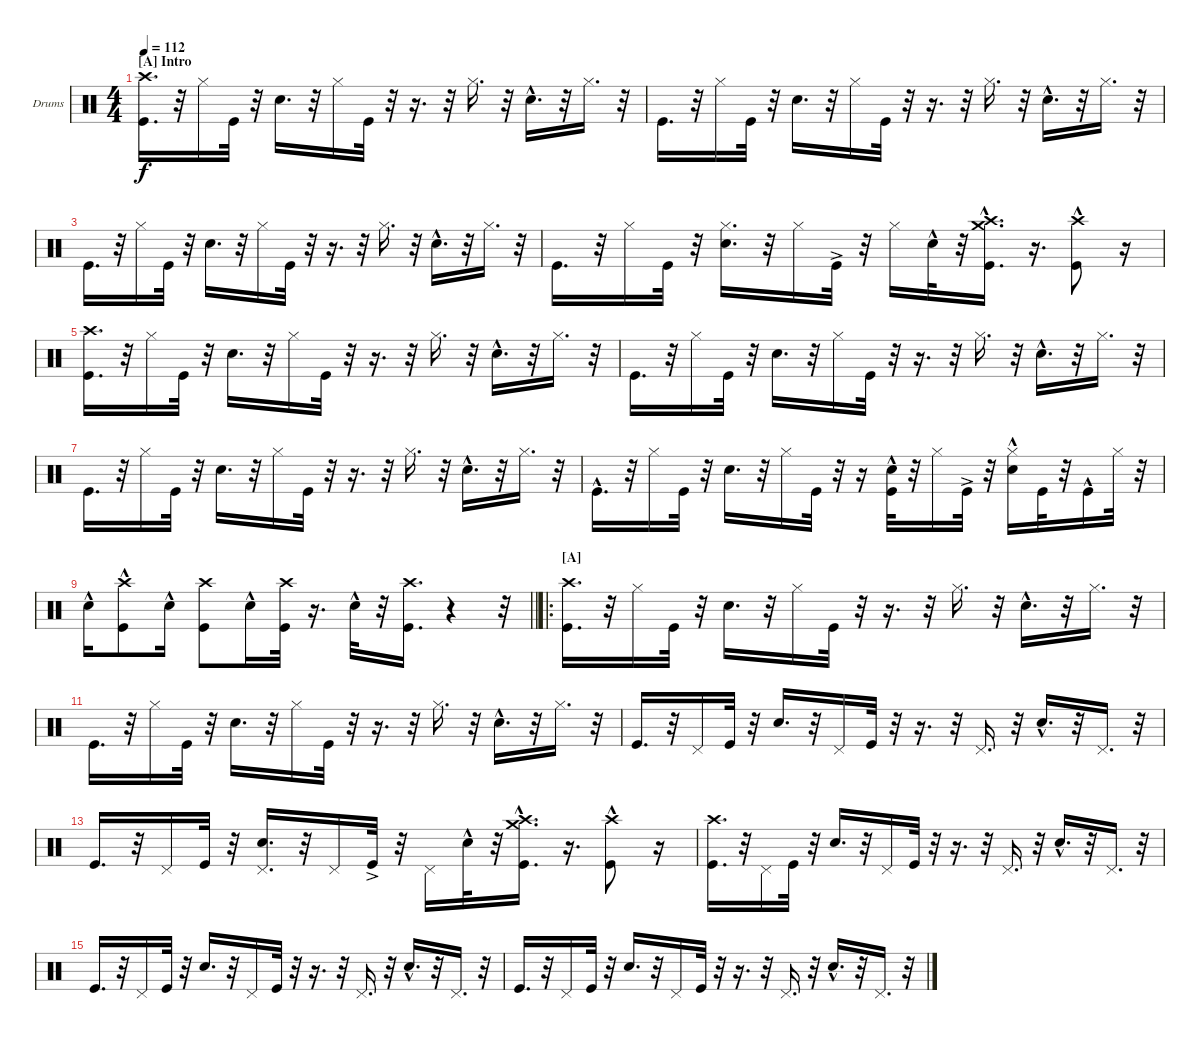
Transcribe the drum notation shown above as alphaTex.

\bracketExtendMode nobrackets
\firstSystemTrackNameOrientation horizontal
\otherSystemsTrackNameOrientation horizontal
\defaultBarNumberDisplay FirstOfSystem
\track ("Drumkit" "Drums") {instrument percussion}
\staff {score}
\articulation defaults
\ts (4 4)
\beaming (8 2 2 2 2)
\section ("A" "Intro")
\tempo 112
\clef neutral
\ks c
("Crash high (hit)" "Kick (hit)").16{d dy f} r.32 "Hi-Hat (closed)".16 "Kick (hit)".32 r.32 "Snare (hit) 2".16{d} r.32 "Hi-Hat (closed)".16 "Kick (hit)".32 r.32 r.16{d} r.32 "Hi-Hat (closed)".16{d} r.32 "Snare (hit) 2"{hac}.16{d} r.32 "Hi-Hat (closed)".16{d} r.32 |
"Kick (hit)".16{d} r.32 "Hi-Hat (closed)".16 "Kick (hit)".32 r.32 "Snare (hit) 2".16{d} r.32 "Hi-Hat (closed)".16 "Kick (hit)".32 r.32 r.16{d} r.32 "Hi-Hat (closed)".16{d} r.32 "Snare (hit) 2"{hac}.16{d} r.32 "Hi-Hat (closed)".16{d} r.32 |
"Kick (hit)".16{d} r.32 "Hi-Hat (closed)".16 "Kick (hit)".32 r.32 "Snare (hit) 2".16{d} r.32 "Hi-Hat (closed)".16 "Kick (hit)".32 r.32 r.16{d} r.32 "Hi-Hat (closed)".16{d} r.32 "Snare (hit) 2"{hac}.16{d} r.32 "Hi-Hat (closed)".16{d} r.32 |
"Kick (hit)".16{d} r.32 "Hi-Hat (closed)".16 "Kick (hit)".32 r.32 ("Snare (hit) 2" "Hi-Hat (closed)").16{d} r.32 "Hi-Hat (closed)".16 "Kick (hit)"{ac}.32 r.32 "Hi-Hat (closed)".16 "Snare (hit) 2"{hac}.32 r.32 ("Crash high (hit)" "Kick (hit)" "Crash medium (hit)"{hac}).16{d} r.16{d} ("Kick (hit)" "Crash high (hit)"{hac}).8 r.16 |
("Crash high (hit)" "Kick (hit)").16{d} r.32 "Hi-Hat (closed)".16 "Kick (hit)".32 r.32 "Snare (hit) 2".16{d} r.32 "Hi-Hat (closed)".16 "Kick (hit)".32 r.32 r.16{d} r.32 "Hi-Hat (closed)".16{d} r.32 "Snare (hit) 2"{hac}.16{d} r.32 "Hi-Hat (closed)".16{d} r.32 |
"Kick (hit)".16{d} r.32 "Hi-Hat (closed)".16 "Kick (hit)".32 r.32 "Snare (hit) 2".16{d} r.32 "Hi-Hat (closed)".16 "Kick (hit)".32 r.32 r.16{d} r.32 "Hi-Hat (closed)".16{d} r.32 "Snare (hit) 2"{hac}.16{d} r.32 "Hi-Hat (closed)".16{d} r.32 |
"Kick (hit)".16{d} r.32 "Hi-Hat (closed)".16 "Kick (hit)".32 r.32 "Snare (hit) 2".16{d} r.32 "Hi-Hat (closed)".16 "Kick (hit)".32 r.32 r.16{d} r.32 "Hi-Hat (closed)".16{d} r.32 "Snare (hit) 2"{hac}.16{d} r.32 "Hi-Hat (closed)".16{d} r.32 |
"Kick (hit)"{hac}.16{d} r.32 "Hi-Hat (closed)".16 "Kick (hit)".32 r.32 "Snare (hit) 2".16{d} r.32 "Hi-Hat (closed)".16 "Kick (hit)".32 r.32 r.16 ("Snare (hit) 2" "Kick (hit)"{hac}).32 r.32 "Hi-Hat (closed)".16 "Kick (hit)"{ac}.32 r.32 ("Snare (hit) 2"{hac} "Hi-Hat (closed)").16 "Kick (hit)".32 r.32 "Kick (hit)"{hac}.16 "Hi-Hat (closed)".32 r.32 |
\barLineRight lightlight "Snare (hit) 2"{hac}.16
("Crash high (hit)" "Kick (hit)"{hac}).8 "Snare (hit) 2"{hac}.16 ("Crash high (hit)" "Kick (hit)").8 "Snare (hit) 2"{hac}.16 ("Crash high (hit)" "Kick (hit)").32 r.16{d} "Snare (hit) 2"{hac}.32 r.32 ("Crash high (hit)" "Kick (hit)").16{d} r.4 r.32 |
\ro
\section ("A" "")
("Crash high (hit)" "Kick (hit)").16{d} r.32 "Hi-Hat (closed)".16 "Kick (hit)".32 r.32 "Snare (hit) 2".16{d} r.32 "Hi-Hat (closed)".16 "Kick (hit)".32 r.32 r.16{d} r.32 "Hi-Hat (closed)".16{d} r.32 "Snare (hit) 2"{hac}.16{d} r.32 "Hi-Hat (closed)".16{d} r.32 |
"Kick (hit)".16{d} r.32 "Hi-Hat (closed)".16 "Kick (hit)".32 r.32 "Snare (hit) 2".16{d} r.32 "Hi-Hat (closed)".16 "Kick (hit)".32 r.32 r.16{d} r.32 "Hi-Hat (closed)".16{d} r.32 "Snare (hit) 2"{hac}.16{d} r.32 "Hi-Hat (closed)".16{d} r.32 |
"Kick (hit)".16{d} r.32 "Pedal Hi-Hat (hit)".16 "Kick (hit)".32 r.32 "Snare (hit) 2".16{d} r.32 "Pedal Hi-Hat (hit)".16 "Kick (hit)".32 r.32 r.16{d} r.32 "Pedal Hi-Hat (hit)".16{d} r.32 "Snare (hit) 2"{hac}.16{d} r.32 "Pedal Hi-Hat (hit)".16{d} r.32 |
"Kick (hit)".16{d} r.32 "Pedal Hi-Hat (hit)".16 "Kick (hit)".32 r.32 ("Pedal Hi-Hat (hit)" "Snare (hit) 2").16{d} r.32 "Pedal Hi-Hat (hit)".16 "Kick (hit)"{ac}.32 r.32 "Pedal Hi-Hat (hit)".16 "Snare (hit) 2"{hac}.32 r.32 ("Crash high (hit)" "Kick (hit)" "Crash medium (hit)"{hac}).16{d} r.16{d} ("Kick (hit)" "Crash high (hit)"{hac}).8 r.16 |
("Crash high (hit)" "Kick (hit)").16{d} r.32 "Pedal Hi-Hat (hit)".16 "Kick (hit)".32 r.32 "Snare (hit) 2".16{d} r.32 "Pedal Hi-Hat (hit)".16 "Kick (hit)".32 r.32 r.16{d} r.32 "Pedal Hi-Hat (hit)".16{d} r.32 "Snare (hit) 2"{hac}.16{d} r.32 "Pedal Hi-Hat (hit)".16{d} r.32 |
"Kick (hit)".16{d} r.32 "Pedal Hi-Hat (hit)".16 "Kick (hit)".32 r.32 "Snare (hit) 2".16{d} r.32 "Pedal Hi-Hat (hit)".16 "Kick (hit)".32 r.32 r.16{d} r.32 "Pedal Hi-Hat (hit)".16{d} r.32 "Snare (hit) 2"{hac}.16{d} r.32 "Pedal Hi-Hat (hit)".16{d} r.32 |
\scale
0.254399 "Kick (hit)".16{d} r.32 "Pedal Hi-Hat (hit)".16 "Kick (hit)".32 r.32 "Snare (hit) 2".16{d} r.32 "Pedal Hi-Hat (hit)".16 "Kick (hit)".32 r.32 r.16{d} r.32 "Pedal Hi-Hat (hit)".16{d} r.32 "Snare (hit) 2"{hac}.16{d} r.32 "Pedal Hi-Hat (hit)".16{d} r.32
